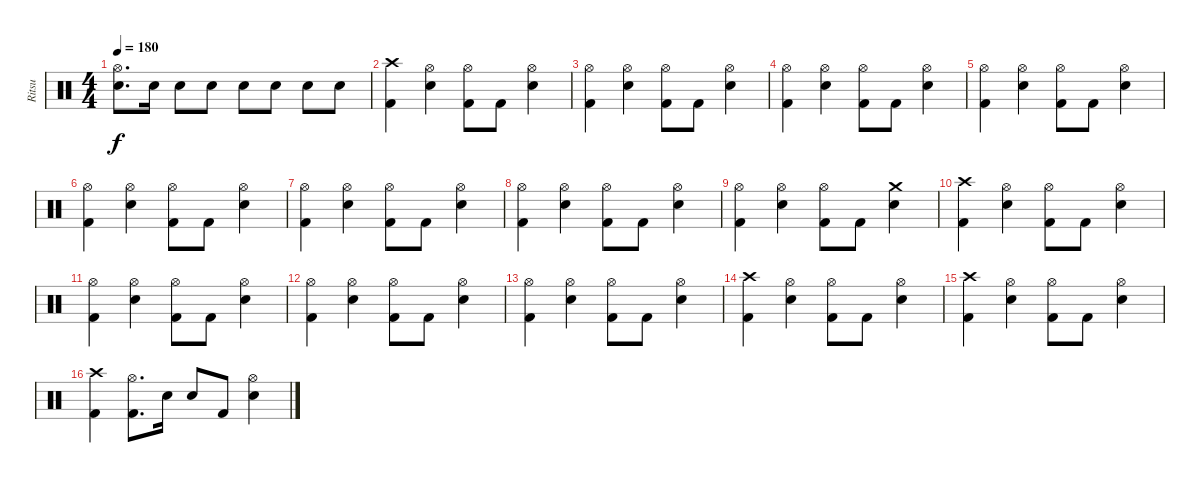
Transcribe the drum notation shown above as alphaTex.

\track ("Ritsu" "Ritsu") {instrument percussion}
\staff {score}
\articulation defaults
\ts (4 4)
\tempo 180
\clef neutral
\ks c
("Hi-Hat (open)" "Snare (hit) 2").8{d dy f} "Snare (hit) 2".16 "Snare (hit) 2".8 "Snare (hit) 2".8 "Snare (hit) 2".8 "Snare (hit) 2".8 "Snare (hit) 2".8 "Snare (hit) 2".8 |
("Crash high (hit)" "Kick (hit) 2").4 ("Hi-Hat (open)" "Snare (hit) 2").4 ("Hi-Hat (open)" "Kick (hit) 2").8 "Kick (hit) 2".8 ("Hi-Hat (open)" "Snare (hit) 2").4 |
("Hi-Hat (open)" "Kick (hit) 2").4 ("Hi-Hat (open)" "Snare (hit) 2").4 ("Hi-Hat (open)" "Kick (hit) 2").8 "Kick (hit) 2".8 ("Hi-Hat (open)" "Snare (hit) 2").4 |
("Hi-Hat (open)" "Kick (hit) 2").4 ("Hi-Hat (open)" "Snare (hit) 2").4 ("Hi-Hat (open)" "Kick (hit) 2").8 "Kick (hit) 2".8 ("Hi-Hat (open)" "Snare (hit) 2").4 |
("Hi-Hat (open)" "Kick (hit) 2").4 ("Hi-Hat (open)" "Snare (hit) 2").4 ("Hi-Hat (open)" "Kick (hit) 2").8 "Kick (hit) 2".8 ("Hi-Hat (open)" "Snare (hit) 2").4 |
("Hi-Hat (open)" "Kick (hit) 2").4 ("Hi-Hat (open)" "Snare (hit) 2").4 ("Hi-Hat (open)" "Kick (hit) 2").8 "Kick (hit) 2".8 ("Hi-Hat (open)" "Snare (hit) 2").4 |
("Hi-Hat (open)" "Kick (hit) 2").4 ("Hi-Hat (open)" "Snare (hit) 2").4 ("Hi-Hat (open)" "Kick (hit) 2").8 "Kick (hit) 2".8 ("Hi-Hat (open)" "Snare (hit) 2").4 |
("Hi-Hat (open)" "Kick (hit) 2").4 ("Hi-Hat (open)" "Snare (hit) 2").4 ("Hi-Hat (open)" "Kick (hit) 2").8 "Kick (hit) 2".8 ("Hi-Hat (open)" "Snare (hit) 2").4 |
("Hi-Hat (open)" "Kick (hit) 2").4 ("Hi-Hat (open)" "Snare (hit) 2").4 ("Hi-Hat (open)" "Kick (hit) 2").8 "Kick (hit) 2".8 ("Crash medium (hit)" "Snare (hit) 2").4 |
("Crash high (hit)" "Kick (hit) 2").4 ("Hi-Hat (open)" "Snare (hit) 2").4 ("Hi-Hat (open)" "Kick (hit) 2").8 "Kick (hit) 2".8 ("Hi-Hat (open)" "Snare (hit) 2").4 |
("Hi-Hat (open)" "Kick (hit) 2").4 ("Hi-Hat (open)" "Snare (hit) 2").4 ("Hi-Hat (open)" "Kick (hit) 2").8 "Kick (hit) 2".8 ("Hi-Hat (open)" "Snare (hit) 2").4 |
("Hi-Hat (open)" "Kick (hit) 2").4 ("Hi-Hat (open)" "Snare (hit) 2").4 ("Hi-Hat (open)" "Kick (hit) 2").8 "Kick (hit) 2".8 ("Hi-Hat (open)" "Snare (hit) 2").4 |
("Hi-Hat (open)" "Kick (hit) 2").4 ("Hi-Hat (open)" "Snare (hit) 2").4 ("Hi-Hat (open)" "Kick (hit) 2").8 "Kick (hit) 2".8 ("Hi-Hat (open)" "Snare (hit) 2").4 |
("Crash high (hit)" "Kick (hit) 2").4 ("Hi-Hat (open)" "Snare (hit) 2").4 ("Hi-Hat (open)" "Kick (hit) 2").8 "Kick (hit) 2".8 ("Hi-Hat (open)" "Snare (hit) 2").4 |
("Crash high (hit)" "Kick (hit) 2").4 ("Hi-Hat (open)" "Snare (hit) 2").4 ("Hi-Hat (open)" "Kick (hit) 2").8 "Kick (hit) 2".8 ("Hi-Hat (open)" "Snare (hit) 2").4 |
("Crash high (hit)" "Kick (hit) 2").4 ("Hi-Hat (open)" "Kick (hit) 2").8{d} "Snare (hit) 2".16 "Snare (hit) 2".8 "Kick (hit) 2".8 ("Hi-Hat (open)" "Snare (hit) 2").4
